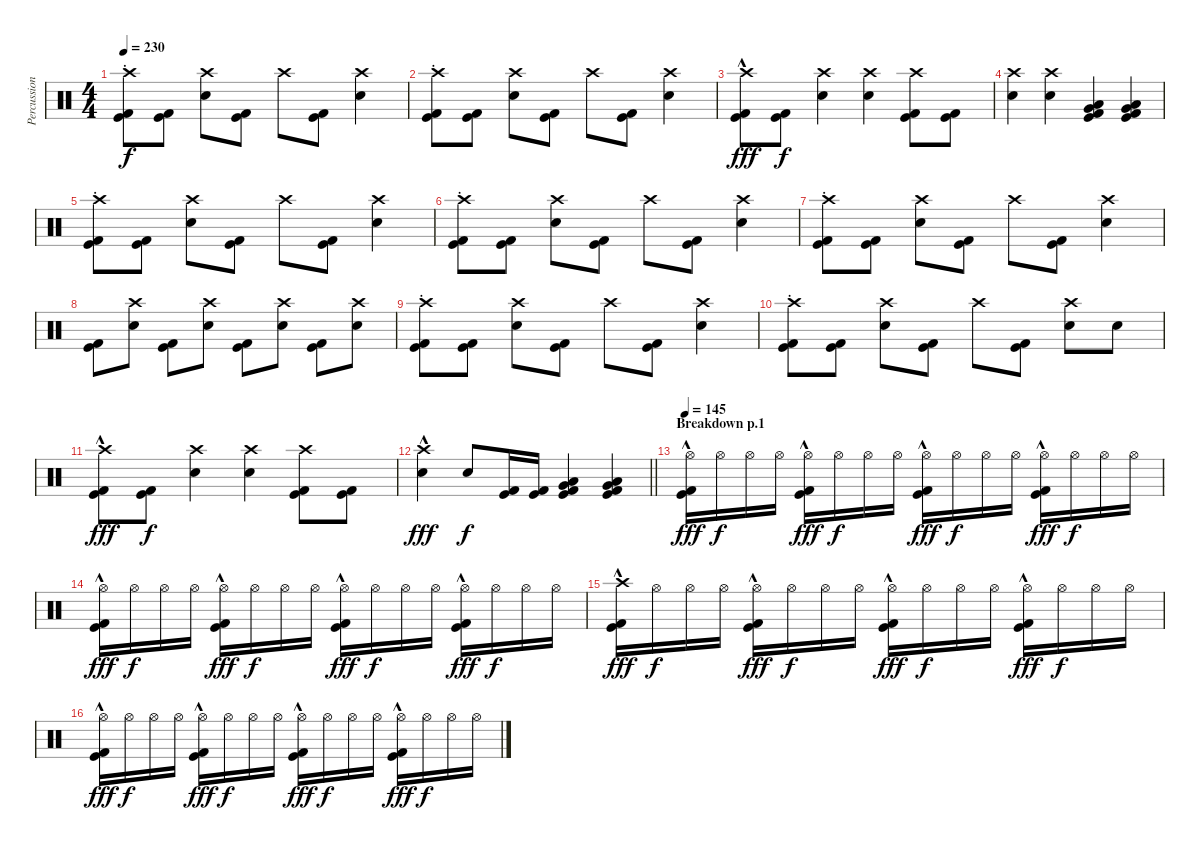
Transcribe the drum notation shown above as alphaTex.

\track ("Percussion" "Percussion") {instrument percussion}
\staff {score}
\articulation defaults
\ts (4 4)
\tempo 230
\clef neutral
\ks c
("Crash high (hit)" "Kick (hit)" "Kick (hit) 2"{st}).8{dy f} ("Kick (hit)" "Kick (hit) 2").8 ("Crash high (hit)" "Electric Snare (hit)").8 ("Kick (hit)" "Kick (hit) 2").8 "Crash high (hit)".8 ("Kick (hit)" "Kick (hit) 2").8 ("Crash high (hit)" "Electric Snare (hit)").4 |
("Crash high (hit)" "Kick (hit)" "Kick (hit) 2"{st}).8 ("Kick (hit)" "Kick (hit) 2").8 ("Crash high (hit)" "Electric Snare (hit)").8 ("Kick (hit)" "Kick (hit) 2").8 "Crash high (hit)".8 ("Kick (hit)" "Kick (hit) 2").8 ("Crash high (hit)" "Electric Snare (hit)").4 |
("Crash high (hit)"{hac} "Kick (hit)" "Kick (hit) 2").8{dy fff} ("Kick (hit)" "Kick (hit) 2").8{dy f} ("Crash high (hit)" "Electric Snare (hit)").4 ("Crash high (hit)" "Electric Snare (hit)").4 ("Crash high (hit)" "Kick (hit)" "Kick (hit) 2").8 ("Kick (hit)" "Kick (hit) 2").8 |
("Crash high (hit)" "Electric Snare (hit)").4 ("Crash high (hit)" "Electric Snare (hit)").4 ("Low Tom (hit)" "Very Low Tom (hit)" "Kick (hit)" "Kick (hit) 2").4 ("Very Low Tom (hit)" "Low Floor Tom (hit)" "Kick (hit)" "Kick (hit) 2").4 |
("Crash high (hit)" "Kick (hit)" "Kick (hit) 2"{st}).8 ("Kick (hit)" "Kick (hit) 2").8 ("Crash high (hit)" "Electric Snare (hit)").8 ("Kick (hit)" "Kick (hit) 2").8 "Crash high (hit)".8 ("Kick (hit)" "Kick (hit) 2").8 ("Crash high (hit)" "Electric Snare (hit)").4 |
("Crash high (hit)" "Kick (hit)" "Kick (hit) 2"{st}).8 ("Kick (hit)" "Kick (hit) 2").8 ("Crash high (hit)" "Electric Snare (hit)").8 ("Kick (hit)" "Kick (hit) 2").8 "Crash high (hit)".8 ("Kick (hit)" "Kick (hit) 2").8 ("Crash high (hit)" "Electric Snare (hit)").4 |
("Crash high (hit)" "Kick (hit)" "Kick (hit) 2"{st}).8 ("Kick (hit)" "Kick (hit) 2").8 ("Crash high (hit)" "Electric Snare (hit)").8 ("Kick (hit)" "Kick (hit) 2").8 "Crash high (hit)".8 ("Kick (hit)" "Kick (hit) 2").8 ("Crash high (hit)" "Electric Snare (hit)").4 |
("Kick (hit)" "Kick (hit) 2").8 ("Crash high (hit)" "Electric Snare (hit)").8 ("Kick (hit)" "Kick (hit) 2").8 ("Crash high (hit)" "Electric Snare (hit)").8 ("Kick (hit)" "Kick (hit) 2").8 ("Crash high (hit)" "Electric Snare (hit)").8 ("Kick (hit)" "Kick (hit) 2").8 ("Crash high (hit)" "Electric Snare (hit)").8 |
("Crash high (hit)" "Kick (hit)" "Kick (hit) 2"{st}).8 ("Kick (hit)" "Kick (hit) 2").8 ("Crash high (hit)" "Electric Snare (hit)").8 ("Kick (hit)" "Kick (hit) 2").8 "Crash high (hit)".8 ("Kick (hit)" "Kick (hit) 2").8 ("Crash high (hit)" "Electric Snare (hit)").4 |
("Crash high (hit)" "Kick (hit)" "Kick (hit) 2"{st}).8 ("Kick (hit)" "Kick (hit) 2").8 ("Crash high (hit)" "Electric Snare (hit)").8 ("Kick (hit)" "Kick (hit) 2").8 "Crash high (hit)".8 ("Kick (hit)" "Kick (hit) 2").8 ("Crash high (hit)" "Electric Snare (hit)").8 "Electric Snare (hit)".8 |
("Crash high (hit)"{hac} "Kick (hit)" "Kick (hit) 2").8{dy fff} ("Kick (hit)" "Kick (hit) 2").8{dy f} ("Crash high (hit)" "Electric Snare (hit)").4 ("Crash high (hit)" "Electric Snare (hit)").4 ("Crash high (hit)" "Kick (hit)" "Kick (hit) 2").8 ("Kick (hit)" "Kick (hit) 2").8 |
\barLineRight lightlight
("Crash high (hit)"{hac} "Electric Snare (hit)").4{dy fff} "Electric Snare (hit)".8{dy f} ("Kick (hit)" "Kick (hit) 2").16 ("Kick (hit)" "Kick (hit) 2").16 ("Low Tom (hit)" "Very Low Tom (hit)" "Kick (hit)" "Kick (hit) 2").4 ("Low Tom (hit)" "Very Low Tom (hit)" "Kick (hit)" "Kick (hit) 2").4 |
\section ("" "Breakdown p.1")
\tempo 145
("Hi-Hat (open)" "Kick (hit)"{hac} "Kick (hit) 2"{hac}).16{dy fff volume 11} "Hi-Hat (open)".16{dy f} "Hi-Hat (open)".16 "Hi-Hat (open)".16 ("Hi-Hat (open)" "Kick (hit)"{hac} "Kick (hit) 2"{hac}).16{dy fff} "Hi-Hat (open)".16{dy f} "Hi-Hat (open)".16 "Hi-Hat (open)".16 ("Hi-Hat (open)" "Kick (hit)"{hac} "Kick (hit) 2"{hac}).16{dy fff} "Hi-Hat (open)".16{dy f} "Hi-Hat (open)".16 "Hi-Hat (open)".16 ("Hi-Hat (open)" "Kick (hit)"{hac} "Kick (hit) 2"{hac}).16{dy fff} "Hi-Hat (open)".16{dy f} "Hi-Hat (open)".16 "Hi-Hat (open)".16 |
("Hi-Hat (open)" "Kick (hit)"{hac} "Kick (hit) 2"{hac}).16{dy fff} "Hi-Hat (open)".16{dy f} "Hi-Hat (open)".16 "Hi-Hat (open)".16 ("Hi-Hat (open)" "Kick (hit)"{hac} "Kick (hit) 2"{hac}).16{dy fff} "Hi-Hat (open)".16{dy f} "Hi-Hat (open)".16 "Hi-Hat (open)".16 ("Hi-Hat (open)" "Kick (hit)"{hac} "Kick (hit) 2"{hac}).16{dy fff} "Hi-Hat (open)".16{dy f} "Hi-Hat (open)".16 "Hi-Hat (open)".16 ("Hi-Hat (open)" "Kick (hit)"{hac} "Kick (hit) 2"{hac}).16{dy fff} "Hi-Hat (open)".16{dy f} "Hi-Hat (open)".16 "Hi-Hat (open)".16 |
("Crash high (hit)"{hac} "Kick (hit)"{hac} "Kick (hit) 2"{hac}).16{dy fff} "Hi-Hat (open)".16{dy f} "Hi-Hat (open)".16 "Hi-Hat (open)".16 ("Hi-Hat (open)" "Kick (hit)"{hac} "Kick (hit) 2"{hac}).16{dy fff} "Hi-Hat (open)".16{dy f} "Hi-Hat (open)".16 "Hi-Hat (open)".16 ("Hi-Hat (open)" "Kick (hit)"{hac} "Kick (hit) 2"{hac}).16{dy fff} "Hi-Hat (open)".16{dy f} "Hi-Hat (open)".16 "Hi-Hat (open)".16 ("Hi-Hat (open)" "Kick (hit)"{hac} "Kick (hit) 2"{hac}).16{dy fff} "Hi-Hat (open)".16{dy f} "Hi-Hat (open)".16 "Hi-Hat (open)".16 |
("Hi-Hat (open)" "Kick (hit)"{hac} "Kick (hit) 2"{hac}).16{dy fff} "Hi-Hat (open)".16{dy f} "Hi-Hat (open)".16 "Hi-Hat (open)".16 ("Hi-Hat (open)" "Kick (hit)"{hac} "Kick (hit) 2"{hac}).16{dy fff} "Hi-Hat (open)".16{dy f} "Hi-Hat (open)".16 "Hi-Hat (open)".16 ("Hi-Hat (open)" "Kick (hit)"{hac} "Kick (hit) 2"{hac}).16{dy fff} "Hi-Hat (open)".16{dy f} "Hi-Hat (open)".16 "Hi-Hat (open)".16 ("Hi-Hat (open)" "Kick (hit)"{hac} "Kick (hit) 2"{hac}).16{dy fff} "Hi-Hat (open)".16{dy f} "Hi-Hat (open)".16 "Hi-Hat (open)".16
